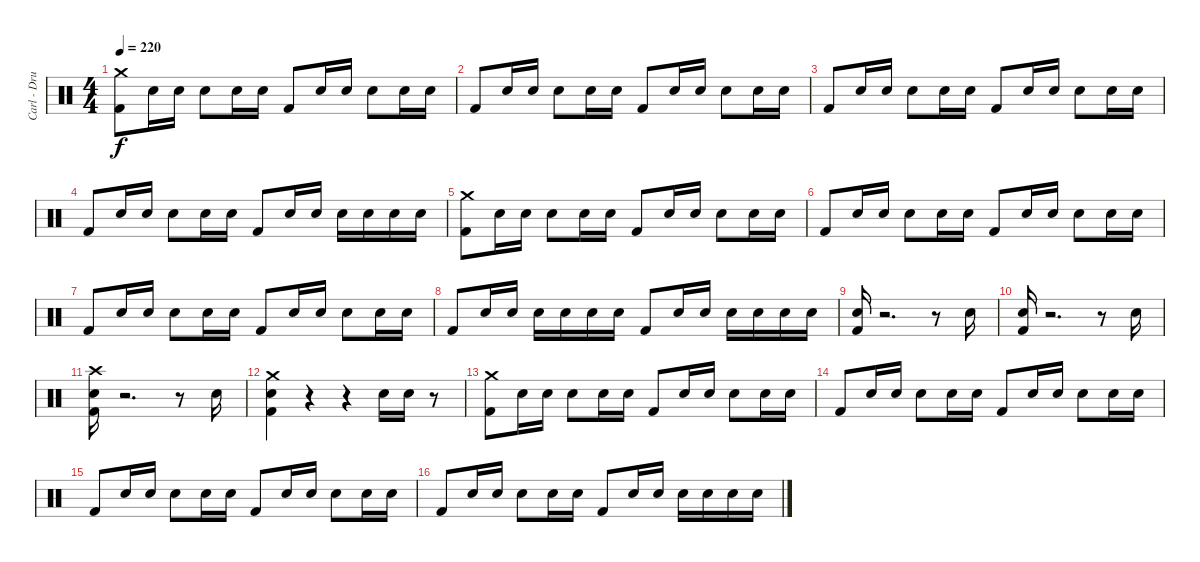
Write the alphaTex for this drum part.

\track ("Carl - Drums" "Carl - Dru") {instrument percussion}
\staff {score}
\articulation defaults
\ts (4 4)
\tempo 220
\clef neutral
\ks c
("Crash medium (hit)" "Kick (hit) 2").8{dy f} "Electric Snare (hit)".16 "Electric Snare (hit)".16 "Electric Snare (hit)".8 "Electric Snare (hit)".16 "Electric Snare (hit)".16 "Kick (hit) 2".8 "Electric Snare (hit)".16 "Electric Snare (hit)".16 "Electric Snare (hit)".8 "Electric Snare (hit)".16 "Electric Snare (hit)".16 |
"Kick (hit) 2".8 "Electric Snare (hit)".16 "Electric Snare (hit)".16 "Electric Snare (hit)".8 "Electric Snare (hit)".16 "Electric Snare (hit)".16 "Kick (hit) 2".8 "Electric Snare (hit)".16 "Electric Snare (hit)".16 "Electric Snare (hit)".8 "Electric Snare (hit)".16 "Electric Snare (hit)".16 |
"Kick (hit) 2".8 "Electric Snare (hit)".16 "Electric Snare (hit)".16 "Electric Snare (hit)".8 "Electric Snare (hit)".16 "Electric Snare (hit)".16 "Kick (hit) 2".8 "Electric Snare (hit)".16 "Electric Snare (hit)".16 "Electric Snare (hit)".8 "Electric Snare (hit)".16 "Electric Snare (hit)".16 |
"Kick (hit) 2".8 "Electric Snare (hit)".16 "Electric Snare (hit)".16 "Electric Snare (hit)".8 "Electric Snare (hit)".16 "Electric Snare (hit)".16 "Kick (hit) 2".8 "Electric Snare (hit)".16 "Electric Snare (hit)".16 "Electric Snare (hit)".16 "Electric Snare (hit)".16 "Electric Snare (hit)".16 "Electric Snare (hit)".16 |
("Crash medium (hit)" "Kick (hit) 2").8 "Electric Snare (hit)".16 "Electric Snare (hit)".16 "Electric Snare (hit)".8 "Electric Snare (hit)".16 "Electric Snare (hit)".16 "Kick (hit) 2".8 "Electric Snare (hit)".16 "Electric Snare (hit)".16 "Electric Snare (hit)".8 "Electric Snare (hit)".16 "Electric Snare (hit)".16 |
"Kick (hit) 2".8 "Electric Snare (hit)".16 "Electric Snare (hit)".16 "Electric Snare (hit)".8 "Electric Snare (hit)".16 "Electric Snare (hit)".16 "Kick (hit) 2".8 "Electric Snare (hit)".16 "Electric Snare (hit)".16 "Electric Snare (hit)".8 "Electric Snare (hit)".16 "Electric Snare (hit)".16 |
"Kick (hit) 2".8 "Electric Snare (hit)".16 "Electric Snare (hit)".16 "Electric Snare (hit)".8 "Electric Snare (hit)".16 "Electric Snare (hit)".16 "Kick (hit) 2".8 "Electric Snare (hit)".16 "Electric Snare (hit)".16 "Electric Snare (hit)".8 "Electric Snare (hit)".16 "Electric Snare (hit)".16 |
"Kick (hit) 2".8 "Electric Snare (hit)".16 "Electric Snare (hit)".16 "Electric Snare (hit)".16 "Electric Snare (hit)".16 "Electric Snare (hit)".16 "Electric Snare (hit)".16 "Kick (hit) 2".8 "Electric Snare (hit)".16 "Electric Snare (hit)".16 "Electric Snare (hit)".16 "Electric Snare (hit)".16 "Electric Snare (hit)".16 "Electric Snare (hit)".16 |
("Kick (hit) 2" "Electric Snare (hit)").16 r.2{d} r.8 "Electric Snare (hit)".16 |
("Electric Snare (hit)" "Kick (hit) 2").16 r.2{d} r.8 "Electric Snare (hit)".16 |
("Crash high (hit)" "Electric Snare (hit)" "Kick (hit) 2").16 r.2{d} r.8 "Electric Snare (hit)".16 |
("Crash medium (hit)" "Electric Snare (hit)" "Kick (hit) 2").4 r.4 r.4 "Electric Snare (hit)".16 "Electric Snare (hit)".16 r.8 |
("Crash medium (hit)" "Kick (hit) 2").8 "Electric Snare (hit)".16 "Electric Snare (hit)".16 "Electric Snare (hit)".8 "Electric Snare (hit)".16 "Electric Snare (hit)".16 "Kick (hit) 2".8 "Electric Snare (hit)".16 "Electric Snare (hit)".16 "Electric Snare (hit)".8 "Electric Snare (hit)".16 "Electric Snare (hit)".16 |
"Kick (hit) 2".8 "Electric Snare (hit)".16 "Electric Snare (hit)".16 "Electric Snare (hit)".8 "Electric Snare (hit)".16 "Electric Snare (hit)".16 "Kick (hit) 2".8 "Electric Snare (hit)".16 "Electric Snare (hit)".16 "Electric Snare (hit)".8 "Electric Snare (hit)".16 "Electric Snare (hit)".16 |
"Kick (hit) 2".8 "Electric Snare (hit)".16 "Electric Snare (hit)".16 "Electric Snare (hit)".8 "Electric Snare (hit)".16 "Electric Snare (hit)".16 "Kick (hit) 2".8 "Electric Snare (hit)".16 "Electric Snare (hit)".16 "Electric Snare (hit)".8 "Electric Snare (hit)".16 "Electric Snare (hit)".16 |
"Kick (hit) 2".8 "Electric Snare (hit)".16 "Electric Snare (hit)".16 "Electric Snare (hit)".8 "Electric Snare (hit)".16 "Electric Snare (hit)".16 "Kick (hit) 2".8 "Electric Snare (hit)".16 "Electric Snare (hit)".16 "Electric Snare (hit)".16 "Electric Snare (hit)".16 "Electric Snare (hit)".16 "Electric Snare (hit)".16
